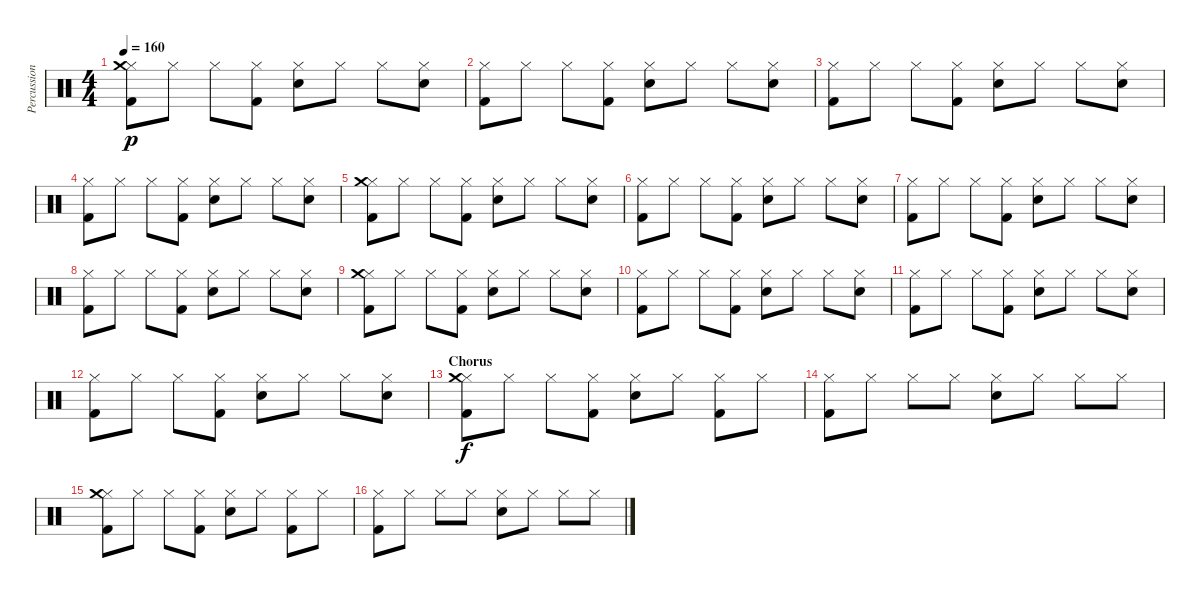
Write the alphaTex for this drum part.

\track ("Percussions" "Percussion") {instrument percussion}
\staff {score}
\articulation defaults
\ts (4 4)
\tempo 160
\clef neutral
\ks c
("Hi-Hat (closed)" "Kick (hit) 2" "Crash medium (hit)").8{dy p} "Hi-Hat (closed)".8 "Hi-Hat (closed)".8 ("Hi-Hat (closed)" "Kick (hit) 2").8 ("Hi-Hat (closed)" "Electric Snare (hit)").8 "Hi-Hat (closed)".8 "Hi-Hat (closed)".8 ("Hi-Hat (closed)" "Electric Snare (hit)").8 |
("Hi-Hat (closed)" "Kick (hit) 2").8 "Hi-Hat (closed)".8 "Hi-Hat (closed)".8 ("Hi-Hat (closed)" "Kick (hit) 2").8 ("Hi-Hat (closed)" "Electric Snare (hit)").8 "Hi-Hat (closed)".8 "Hi-Hat (closed)".8 ("Hi-Hat (closed)" "Electric Snare (hit)").8 |
("Hi-Hat (closed)" "Kick (hit) 2").8 "Hi-Hat (closed)".8 "Hi-Hat (closed)".8 ("Hi-Hat (closed)" "Kick (hit) 2").8 ("Hi-Hat (closed)" "Electric Snare (hit)").8 "Hi-Hat (closed)".8 "Hi-Hat (closed)".8 ("Hi-Hat (closed)" "Electric Snare (hit)").8 |
("Hi-Hat (closed)" "Kick (hit) 2").8 "Hi-Hat (closed)".8 "Hi-Hat (closed)".8 ("Hi-Hat (closed)" "Kick (hit) 2").8 ("Hi-Hat (closed)" "Electric Snare (hit)").8 "Hi-Hat (closed)".8 "Hi-Hat (closed)".8 ("Hi-Hat (closed)" "Electric Snare (hit)").8 |
("Hi-Hat (closed)" "Kick (hit) 2" "Crash medium (hit)").8 "Hi-Hat (closed)".8 "Hi-Hat (closed)".8 ("Hi-Hat (closed)" "Kick (hit) 2").8 ("Hi-Hat (closed)" "Electric Snare (hit)").8 "Hi-Hat (closed)".8 "Hi-Hat (closed)".8 ("Hi-Hat (closed)" "Electric Snare (hit)").8 |
("Hi-Hat (closed)" "Kick (hit) 2").8 "Hi-Hat (closed)".8 "Hi-Hat (closed)".8 ("Hi-Hat (closed)" "Kick (hit) 2").8 ("Hi-Hat (closed)" "Electric Snare (hit)").8 "Hi-Hat (closed)".8 "Hi-Hat (closed)".8 ("Hi-Hat (closed)" "Electric Snare (hit)").8 |
("Hi-Hat (closed)" "Kick (hit) 2").8 "Hi-Hat (closed)".8 "Hi-Hat (closed)".8 ("Hi-Hat (closed)" "Kick (hit) 2").8 ("Hi-Hat (closed)" "Electric Snare (hit)").8 "Hi-Hat (closed)".8 "Hi-Hat (closed)".8 ("Hi-Hat (closed)" "Electric Snare (hit)").8 |
("Hi-Hat (closed)" "Kick (hit) 2").8 "Hi-Hat (closed)".8 "Hi-Hat (closed)".8 ("Hi-Hat (closed)" "Kick (hit) 2").8 ("Hi-Hat (closed)" "Electric Snare (hit)").8 "Hi-Hat (closed)".8 "Hi-Hat (closed)".8 ("Hi-Hat (closed)" "Electric Snare (hit)").8 |
("Hi-Hat (closed)" "Kick (hit) 2" "Crash medium (hit)").8 "Hi-Hat (closed)".8 "Hi-Hat (closed)".8 ("Hi-Hat (closed)" "Kick (hit) 2").8 ("Hi-Hat (closed)" "Electric Snare (hit)").8 "Hi-Hat (closed)".8 "Hi-Hat (closed)".8 ("Hi-Hat (closed)" "Electric Snare (hit)").8 |
("Hi-Hat (closed)" "Kick (hit) 2").8 "Hi-Hat (closed)".8 "Hi-Hat (closed)".8 ("Hi-Hat (closed)" "Kick (hit) 2").8 ("Hi-Hat (closed)" "Electric Snare (hit)").8 "Hi-Hat (closed)".8 "Hi-Hat (closed)".8 ("Hi-Hat (closed)" "Electric Snare (hit)").8 |
("Hi-Hat (closed)" "Kick (hit) 2").8 "Hi-Hat (closed)".8 "Hi-Hat (closed)".8 ("Hi-Hat (closed)" "Kick (hit) 2").8 ("Hi-Hat (closed)" "Electric Snare (hit)").8 "Hi-Hat (closed)".8 "Hi-Hat (closed)".8 ("Hi-Hat (closed)" "Electric Snare (hit)").8 |
("Hi-Hat (closed)" "Kick (hit) 2").8 "Hi-Hat (closed)".8 "Hi-Hat (closed)".8 ("Hi-Hat (closed)" "Kick (hit) 2").8 ("Hi-Hat (closed)" "Electric Snare (hit)").8 "Hi-Hat (closed)".8 "Hi-Hat (closed)".8 ("Hi-Hat (closed)" "Electric Snare (hit)").8 |
\section ("" "Chorus")
("Hi-Hat (closed)" "Kick (hit) 2" "Crash medium (hit)").8{dy f} "Hi-Hat (closed)".8 "Hi-Hat (closed)".8 ("Hi-Hat (closed)" "Kick (hit) 2").8 ("Hi-Hat (closed)" "Electric Snare (hit)").8 "Hi-Hat (closed)".8 ("Hi-Hat (closed)" "Kick (hit) 2").8 "Hi-Hat (closed)".8 |
("Hi-Hat (closed)" "Kick (hit) 2").8 "Hi-Hat (closed)".8 "Hi-Hat (closed)".8 "Hi-Hat (closed)".8 ("Hi-Hat (closed)" "Electric Snare (hit)").8 "Hi-Hat (closed)".8 "Hi-Hat (closed)".8 "Hi-Hat (closed)".8 |
("Hi-Hat (closed)" "Kick (hit) 2" "Crash medium (hit)").8 "Hi-Hat (closed)".8 "Hi-Hat (closed)".8 ("Hi-Hat (closed)" "Kick (hit) 2").8 ("Hi-Hat (closed)" "Electric Snare (hit)").8 "Hi-Hat (closed)".8 ("Hi-Hat (closed)" "Kick (hit) 2").8 "Hi-Hat (closed)".8 |
("Hi-Hat (closed)" "Kick (hit) 2").8 "Hi-Hat (closed)".8 "Hi-Hat (closed)".8 "Hi-Hat (closed)".8 ("Hi-Hat (closed)" "Electric Snare (hit)").8 "Hi-Hat (closed)".8 "Hi-Hat (closed)".8 "Hi-Hat (closed)".8
